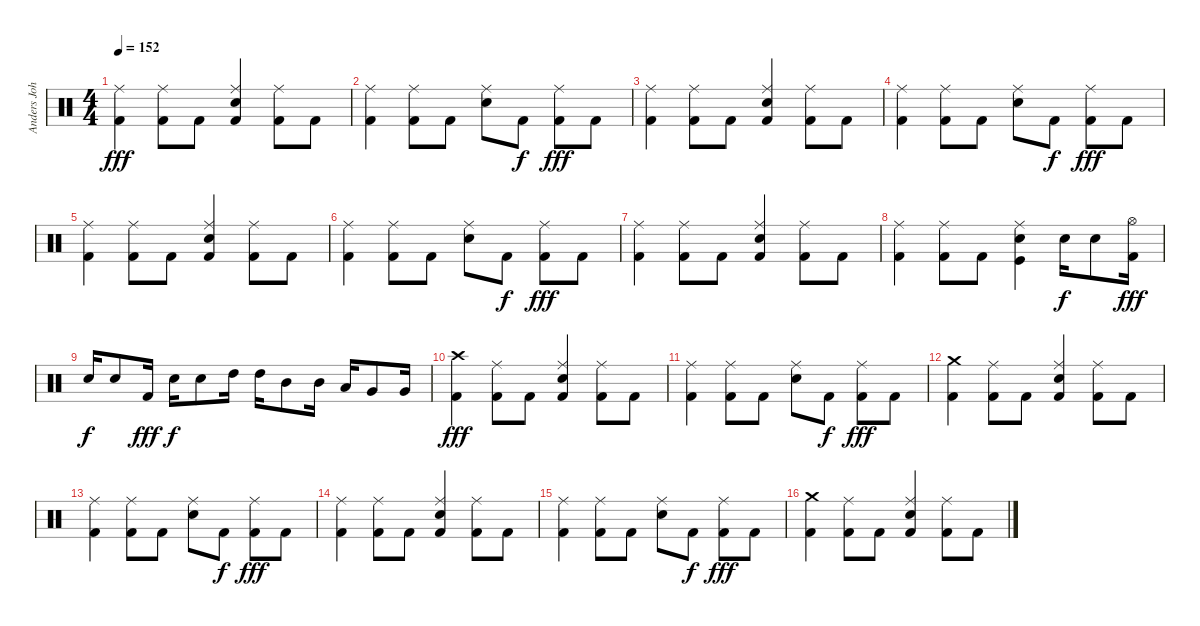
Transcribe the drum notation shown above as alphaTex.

\track ("Anders Johansson (Drums)" "Anders Joh") {instrument percussion}
\staff {score}
\articulation defaults
\ts (4 4)
\tempo 152
\clef neutral
\ks c
("Kick (hit) 2" "Ride (middle)").4{dy fff} ("Kick (hit) 2" "Ride (middle)").8 "Kick (hit) 2".8 ("Kick (hit) 2" "Electric Snare (hit)" "Ride (middle)").4 ("Kick (hit) 2" "Ride (middle)").8 "Kick (hit) 2".8 |
("Kick (hit) 2" "Ride (middle)").4 ("Kick (hit) 2" "Ride (middle)").8 "Kick (hit) 2".8 ("Electric Snare (hit)" "Ride (middle)").8 "Kick (hit) 2".8{dy f} ("Kick (hit) 2" "Ride (middle)").8{dy fff} "Kick (hit) 2".8 |
("Kick (hit) 2" "Ride (middle)").4 ("Kick (hit) 2" "Ride (middle)").8 "Kick (hit) 2".8 ("Kick (hit) 2" "Electric Snare (hit)" "Ride (middle)").4 ("Kick (hit) 2" "Ride (middle)").8 "Kick (hit) 2".8 |
("Kick (hit) 2" "Ride (middle)").4 ("Kick (hit) 2" "Ride (middle)").8 "Kick (hit) 2".8 ("Electric Snare (hit)" "Ride (middle)").8 "Kick (hit) 2".8{dy f} ("Kick (hit) 2" "Ride (middle)").8{dy fff} "Kick (hit) 2".8 |
("Kick (hit) 2" "Ride (middle)").4 ("Kick (hit) 2" "Ride (middle)").8 "Kick (hit) 2".8 ("Kick (hit) 2" "Electric Snare (hit)" "Ride (middle)").4 ("Kick (hit) 2" "Ride (middle)").8 "Kick (hit) 2".8 |
("Kick (hit) 2" "Ride (middle)").4 ("Kick (hit) 2" "Ride (middle)").8 "Kick (hit) 2".8 ("Electric Snare (hit)" "Ride (middle)").8 "Kick (hit) 2".8{dy f} ("Kick (hit) 2" "Ride (middle)").8{dy fff} "Kick (hit) 2".8 |
("Kick (hit) 2" "Ride (middle)").4 ("Kick (hit) 2" "Ride (middle)").8 "Kick (hit) 2".8 ("Kick (hit) 2" "Electric Snare (hit)" "Ride (middle)").4 ("Kick (hit) 2" "Ride (middle)").8 "Kick (hit) 2".8 |
("Kick (hit) 2" "Ride (middle)").4 ("Kick (hit) 2" "Ride (middle)").8 "Kick (hit) 2".8 ("Kick (hit)" "Electric Snare (hit)" "Ride (middle)").4 "Electric Snare (hit)".16{dy f} "Electric Snare (hit)".8 ("Kick (hit) 2" "Hi-Hat (open)").16{dy fff} |
"Electric Snare (hit)".16{dy f} "Electric Snare (hit)".8 "Kick (hit) 2".16{dy fff} "Electric Snare (hit)".16{dy f} "Electric Snare (hit)".8 "High Tom (hit)".16 "High Tom (hit)".16 "Mid Tom (hit)".8 "Mid Tom (hit)".16 "Low Tom (hit)".16 "Very Low Tom (hit)".8 "Very Low Tom (hit)".16 |
("Kick (hit) 2" "Crash high (hit)").4{dy fff} ("Kick (hit) 2" "Ride (middle)").8 "Kick (hit) 2".8 ("Kick (hit) 2" "Electric Snare (hit)" "Ride (middle)").4 ("Kick (hit) 2" "Ride (middle)").8 "Kick (hit) 2".8 |
("Kick (hit) 2" "Ride (middle)").4 ("Kick (hit) 2" "Ride (middle)").8 "Kick (hit) 2".8 ("Electric Snare (hit)" "Ride (middle)").8 "Kick (hit) 2".8{dy f} ("Kick (hit) 2" "Ride (middle)").8{dy fff} "Kick (hit) 2".8 |
("Kick (hit) 2" "Crash medium (hit)").4 ("Kick (hit) 2" "Ride (middle)").8 "Kick (hit) 2".8 ("Kick (hit) 2" "Electric Snare (hit)" "Ride (middle)").4 ("Kick (hit) 2" "Ride (middle)").8 "Kick (hit) 2".8 |
("Kick (hit) 2" "Ride (middle)").4 ("Kick (hit) 2" "Ride (middle)").8 "Kick (hit) 2".8 ("Electric Snare (hit)" "Ride (middle)").8 "Kick (hit) 2".8{dy f} ("Kick (hit) 2" "Ride (middle)").8{dy fff} "Kick (hit) 2".8 |
("Kick (hit) 2" "Ride (middle)").4 ("Kick (hit) 2" "Ride (middle)").8 "Kick (hit) 2".8 ("Kick (hit) 2" "Electric Snare (hit)" "Ride (middle)").4 ("Kick (hit) 2" "Ride (middle)").8 "Kick (hit) 2".8 |
("Kick (hit) 2" "Ride (middle)").4 ("Kick (hit) 2" "Ride (middle)").8 "Kick (hit) 2".8 ("Electric Snare (hit)" "Ride (middle)").8 "Kick (hit) 2".8{dy f} ("Kick (hit) 2" "Ride (middle)").8{dy fff} "Kick (hit) 2".8 |
("Kick (hit) 2" "Crash medium (hit)").4 ("Kick (hit) 2" "Ride (middle)").8 "Kick (hit) 2".8 ("Kick (hit) 2" "Electric Snare (hit)" "Ride (middle)").4 ("Kick (hit) 2" "Ride (middle)").8 "Kick (hit) 2".8
